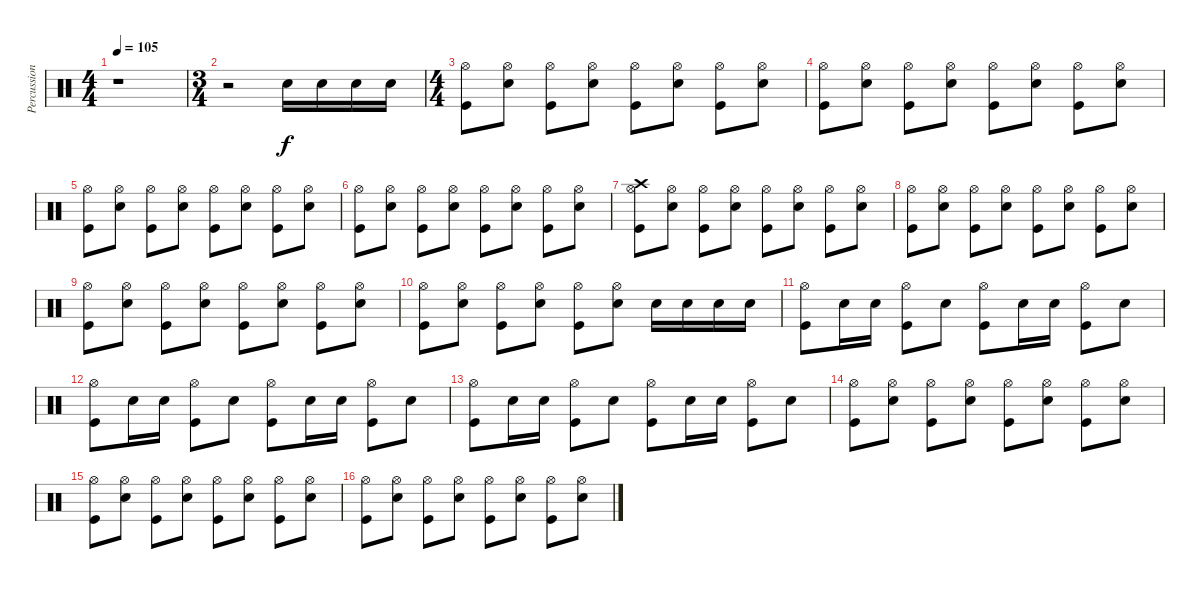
\track ("Percussion" "Percussion") {instrument percussion}
\staff {score}
\articulation defaults
\ts (4 4)
\tempo 105
\clef neutral
\ks c
r.1{dy f} |
\ts (3 4)
r.2 "Snare (hit) 2".16 "Snare (hit) 2".16 "Snare (hit) 2".16 "Snare (hit) 2".16 |
\ts (4 4)
("Hi-Hat (open)" "Kick (hit)").8 ("Hi-Hat (open)" "Snare (hit) 2").8 ("Hi-Hat (open)" "Kick (hit)").8 ("Hi-Hat (open)" "Snare (hit) 2").8 ("Hi-Hat (open)" "Kick (hit)").8 ("Hi-Hat (open)" "Snare (hit) 2").8 ("Hi-Hat (open)" "Kick (hit)").8 ("Hi-Hat (open)" "Snare (hit) 2").8 |
("Hi-Hat (open)" "Kick (hit)").8 ("Hi-Hat (open)" "Snare (hit) 2").8 ("Hi-Hat (open)" "Kick (hit)").8 ("Hi-Hat (open)" "Snare (hit) 2").8 ("Hi-Hat (open)" "Kick (hit)").8 ("Hi-Hat (open)" "Snare (hit) 2").8 ("Hi-Hat (open)" "Kick (hit)").8 ("Hi-Hat (open)" "Snare (hit) 2").8 |
("Hi-Hat (open)" "Kick (hit)").8 ("Hi-Hat (open)" "Snare (hit) 2").8 ("Hi-Hat (open)" "Kick (hit)").8 ("Hi-Hat (open)" "Snare (hit) 2").8 ("Hi-Hat (open)" "Kick (hit)").8 ("Hi-Hat (open)" "Snare (hit) 2").8 ("Hi-Hat (open)" "Kick (hit)").8 ("Hi-Hat (open)" "Snare (hit) 2").8 |
("Hi-Hat (open)" "Kick (hit)").8 ("Hi-Hat (open)" "Snare (hit) 2").8 ("Hi-Hat (open)" "Kick (hit)").8 ("Hi-Hat (open)" "Snare (hit) 2").8 ("Hi-Hat (open)" "Kick (hit)").8 ("Hi-Hat (open)" "Snare (hit) 2").8 ("Hi-Hat (open)" "Kick (hit)").8 ("Hi-Hat (open)" "Snare (hit) 2").8 |
("Hi-Hat (open)" "Kick (hit)" "Crash high (hit)").8 ("Hi-Hat (open)" "Snare (hit) 2").8 ("Hi-Hat (open)" "Kick (hit)").8 ("Hi-Hat (open)" "Snare (hit) 2").8 ("Hi-Hat (open)" "Kick (hit)").8 ("Hi-Hat (open)" "Snare (hit) 2").8 ("Hi-Hat (open)" "Kick (hit)").8 ("Hi-Hat (open)" "Snare (hit) 2").8 |
("Hi-Hat (open)" "Kick (hit)").8 ("Hi-Hat (open)" "Snare (hit) 2").8 ("Hi-Hat (open)" "Kick (hit)").8 ("Hi-Hat (open)" "Snare (hit) 2").8 ("Hi-Hat (open)" "Kick (hit)").8 ("Hi-Hat (open)" "Snare (hit) 2").8 ("Hi-Hat (open)" "Kick (hit)").8 ("Hi-Hat (open)" "Snare (hit) 2").8 |
("Hi-Hat (open)" "Kick (hit)").8 ("Hi-Hat (open)" "Snare (hit) 2").8 ("Hi-Hat (open)" "Kick (hit)").8 ("Hi-Hat (open)" "Snare (hit) 2").8 ("Hi-Hat (open)" "Kick (hit)").8 ("Hi-Hat (open)" "Snare (hit) 2").8 ("Hi-Hat (open)" "Kick (hit)").8 ("Hi-Hat (open)" "Snare (hit) 2").8 |
("Hi-Hat (open)" "Kick (hit)").8 ("Hi-Hat (open)" "Snare (hit) 2").8 ("Hi-Hat (open)" "Kick (hit)").8 ("Hi-Hat (open)" "Snare (hit) 2").8 ("Hi-Hat (open)" "Kick (hit)").8 ("Hi-Hat (open)" "Snare (hit) 2").8 "Snare (hit) 2".16 "Snare (hit) 2".16 "Snare (hit) 2".16 "Snare (hit) 2".16 |
("Hi-Hat (open)" "Kick (hit)").8 "Snare (hit) 2".16 "Snare (hit) 2".16 ("Hi-Hat (open)" "Kick (hit)").8 "Snare (hit) 2".8 ("Hi-Hat (open)" "Kick (hit)").8 "Snare (hit) 2".16 "Snare (hit) 2".16 ("Hi-Hat (open)" "Kick (hit)").8 "Snare (hit) 2".8 |
("Hi-Hat (open)" "Kick (hit)").8 "Snare (hit) 2".16 "Snare (hit) 2".16 ("Hi-Hat (open)" "Kick (hit)").8 "Snare (hit) 2".8 ("Hi-Hat (open)" "Kick (hit)").8 "Snare (hit) 2".16 "Snare (hit) 2".16 ("Hi-Hat (open)" "Kick (hit)").8 "Snare (hit) 2".8 |
("Hi-Hat (open)" "Kick (hit)").8 "Snare (hit) 2".16 "Snare (hit) 2".16 ("Hi-Hat (open)" "Kick (hit)").8 "Snare (hit) 2".8 ("Hi-Hat (open)" "Kick (hit)").8 "Snare (hit) 2".16 "Snare (hit) 2".16 ("Hi-Hat (open)" "Kick (hit)").8 "Snare (hit) 2".8 |
("Hi-Hat (open)" "Kick (hit)").8 ("Hi-Hat (open)" "Snare (hit) 2").8 ("Hi-Hat (open)" "Kick (hit)").8 ("Hi-Hat (open)" "Snare (hit) 2").8 ("Hi-Hat (open)" "Kick (hit)").8 ("Hi-Hat (open)" "Snare (hit) 2").8 ("Hi-Hat (open)" "Kick (hit)").8 ("Hi-Hat (open)" "Snare (hit) 2").8 |
("Hi-Hat (open)" "Kick (hit)").8 ("Hi-Hat (open)" "Snare (hit) 2").8 ("Hi-Hat (open)" "Kick (hit)").8 ("Hi-Hat (open)" "Snare (hit) 2").8 ("Hi-Hat (open)" "Kick (hit)").8 ("Hi-Hat (open)" "Snare (hit) 2").8 ("Hi-Hat (open)" "Kick (hit)").8 ("Hi-Hat (open)" "Snare (hit) 2").8 |
("Hi-Hat (open)" "Kick (hit)").8 ("Hi-Hat (open)" "Snare (hit) 2").8 ("Hi-Hat (open)" "Kick (hit)").8 ("Hi-Hat (open)" "Snare (hit) 2").8 ("Hi-Hat (open)" "Kick (hit)").8 ("Hi-Hat (open)" "Snare (hit) 2").8 ("Hi-Hat (open)" "Kick (hit)").8 ("Hi-Hat (open)" "Snare (hit) 2").8
